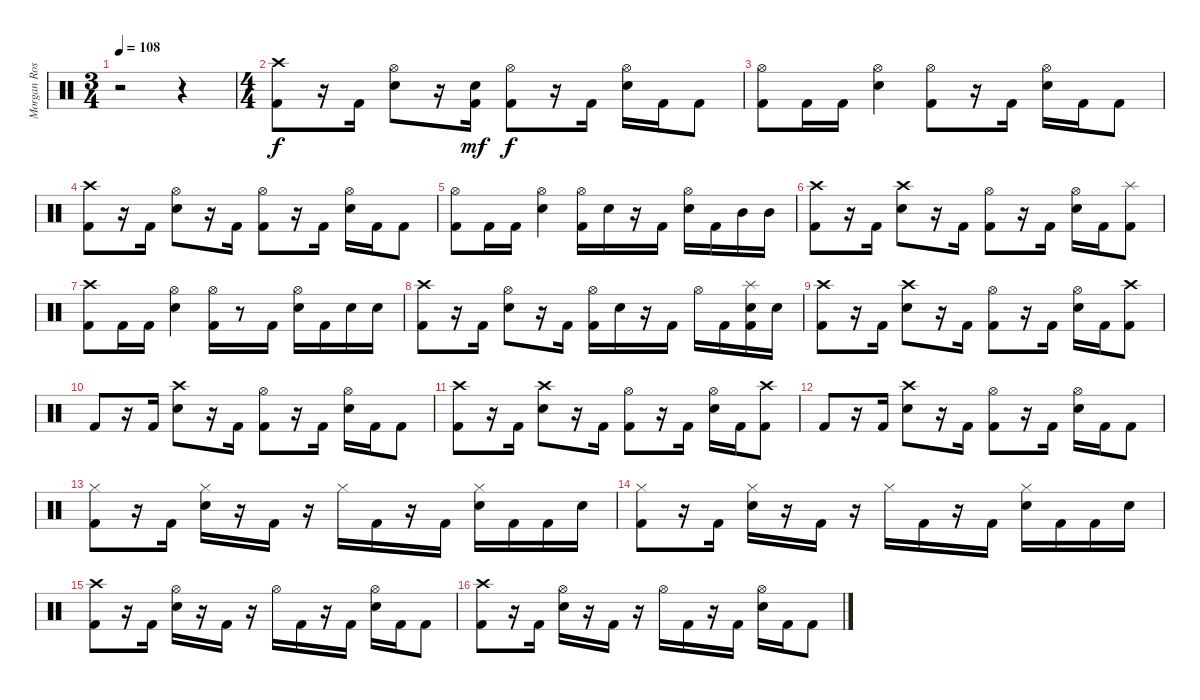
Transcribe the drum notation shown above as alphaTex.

\track ("Morgan Rose - Drums" "Morgan Ros") {instrument percussion}
\staff {score}
\articulation defaults
\ts (3 4)
\tempo 108
\clef neutral
\ks c
r.2{dy f} r.4 |
\ts (4 4)
("Crash high (hit)" "Kick (hit) 2").8 r.16 "Kick (hit) 2".16 ("Hi-Hat (open)" "Electric Snare (hit)").8 r.16 ("Electric Snare (hit)" "Kick (hit) 2").16{dy mf} ("Hi-Hat (open)" "Kick (hit) 2").8{dy f} r.16 "Kick (hit) 2".16 ("Hi-Hat (open)" "Electric Snare (hit)").16 "Kick (hit) 2".16 "Kick (hit) 2".8 |
("Hi-Hat (open)" "Kick (hit) 2").8 "Kick (hit) 2".16 "Kick (hit) 2".16 ("Hi-Hat (open)" "Electric Snare (hit)").4 ("Hi-Hat (open)" "Kick (hit) 2").8 r.16 "Kick (hit) 2".16 ("Hi-Hat (open)" "Electric Snare (hit)").16 "Kick (hit) 2".16 "Kick (hit) 2".8 |
("Crash high (hit)" "Kick (hit) 2").8 r.16 "Kick (hit) 2".16 ("Hi-Hat (open)" "Electric Snare (hit)").8 r.16 "Kick (hit) 2".16 ("Hi-Hat (open)" "Kick (hit) 2").8 r.16 "Kick (hit) 2".16 ("Hi-Hat (open)" "Electric Snare (hit)").16 "Kick (hit) 2".16 "Kick (hit) 2".8 |
("Hi-Hat (open)" "Kick (hit) 2").8 "Kick (hit) 2".16 "Kick (hit) 2".16 ("Hi-Hat (open)" "Electric Snare (hit)").4 ("Hi-Hat (open)" "Kick (hit) 2").16 "Electric Snare (hit)".16 r.16 "Kick (hit) 2".16 ("Hi-Hat (open)" "Electric Snare (hit)").16 "Kick (hit) 2".16 "Mid Tom (hit)".16 "Mid Tom (hit)".16 |
("Crash high (hit)" "Kick (hit) 2").8 r.16 "Kick (hit) 2".16 ("Crash high (hit)" "Electric Snare (hit)").8 r.16 "Kick (hit) 2".16 ("Hi-Hat (open)" "Kick (hit) 2").8 r.16 "Kick (hit) 2".16 ("Hi-Hat (open)" "Electric Snare (hit)").16 "Kick (hit) 2".16 ("Splash (hit)" "Kick (hit) 2").8 |
("Crash high (hit)" "Kick (hit) 2").8 "Kick (hit) 2".16 "Kick (hit) 2".16 ("Hi-Hat (open)" "Electric Snare (hit)").4 ("Hi-Hat (open)" "Kick (hit) 2").16 r.8 "Kick (hit) 2".16 ("Hi-Hat (open)" "Electric Snare (hit)").16 "Kick (hit) 2".16 "Electric Snare (hit)".16 "Electric Snare (hit)".16 |
("Crash high (hit)" "Kick (hit) 2").8 r.16 "Kick (hit) 2".16 ("Hi-Hat (open)" "Electric Snare (hit)").8 r.16 "Kick (hit) 2".16 ("Hi-Hat (open)" "Kick (hit) 2").16 "Electric Snare (hit)".16 r.16 "Kick (hit) 2".16 "Hi-Hat (open)".16 "Kick (hit) 2".16 ("Splash (hit)" "Electric Snare (hit)" "Kick (hit) 2").16 "Electric Snare (hit)".16 |
("Crash high (hit)" "Kick (hit) 2").8 r.16 "Kick (hit) 2".16 ("Crash high (hit)" "Electric Snare (hit)").8 r.16 "Kick (hit) 2".16 ("Hi-Hat (open)" "Kick (hit) 2").8 r.16 "Kick (hit) 2".16 ("Hi-Hat (open)" "Electric Snare (hit)").16 "Kick (hit) 2".16 ("Crash high (hit)" "Kick (hit) 2").8 |
"Kick (hit) 2".8 r.16 "Kick (hit) 2".16 ("Crash high (hit)" "Electric Snare (hit)").8 r.16 "Kick (hit) 2".16 ("Hi-Hat (open)" "Kick (hit) 2").8 r.16 "Kick (hit) 2".16 ("Hi-Hat (open)" "Electric Snare (hit)").16 "Kick (hit) 2".16 "Kick (hit) 2".8 |
("Crash high (hit)" "Kick (hit) 2").8 r.16 "Kick (hit) 2".16 ("Crash high (hit)" "Electric Snare (hit)").8 r.16 "Kick (hit) 2".16 ("Hi-Hat (open)" "Kick (hit) 2").8 r.16 "Kick (hit) 2".16 ("Hi-Hat (open)" "Electric Snare (hit)").16 "Kick (hit) 2".16 ("Crash high (hit)" "Kick (hit) 2").8 |
"Kick (hit) 2".8 r.16 "Kick (hit) 2".16 ("Crash high (hit)" "Electric Snare (hit)").8 r.16 "Kick (hit) 2".16 ("Hi-Hat (open)" "Kick (hit) 2").8 r.16 "Kick (hit) 2".16 ("Hi-Hat (open)" "Electric Snare (hit)").16 "Kick (hit) 2".16 "Kick (hit) 2".8 |
("Hi-Hat (closed)" "Kick (hit) 2").8 r.16 "Kick (hit) 2".16 ("Hi-Hat (closed)" "Electric Snare (hit)").16 r.16 "Kick (hit) 2".16 r.16 "Hi-Hat (closed)".16 "Kick (hit) 2".16 r.16 "Kick (hit) 2".16 ("Hi-Hat (closed)" "Electric Snare (hit)").16 "Kick (hit) 2".16 "Kick (hit) 2".16 "Electric Snare (hit)".16 |
("Hi-Hat (closed)" "Kick (hit) 2").8 r.16 "Kick (hit) 2".16 ("Hi-Hat (closed)" "Electric Snare (hit)").16 r.16 "Kick (hit) 2".16 r.16 "Hi-Hat (closed)".16 "Kick (hit) 2".16 r.16 "Kick (hit) 2".16 ("Hi-Hat (closed)" "Electric Snare (hit)").16 "Kick (hit) 2".16 "Kick (hit) 2".16 "Electric Snare (hit)".16 |
("Crash high (hit)" "Kick (hit) 2").8 r.16 "Kick (hit) 2".16 ("Hi-Hat (open)" "Electric Snare (hit)").16 r.16 "Kick (hit) 2".16 r.16 "Hi-Hat (open)".16 "Kick (hit) 2".16 r.16 "Kick (hit) 2".16 ("Hi-Hat (open)" "Electric Snare (hit)").16 "Kick (hit) 2".16 "Kick (hit) 2".8 |
("Crash high (hit)" "Kick (hit) 2").8 r.16 "Kick (hit) 2".16 ("Hi-Hat (open)" "Electric Snare (hit)").16 r.16 "Kick (hit) 2".16 r.16 "Hi-Hat (open)".16 "Kick (hit) 2".16 r.16 "Kick (hit) 2".16 ("Hi-Hat (open)" "Electric Snare (hit)").16 "Kick (hit) 2".16 "Kick (hit) 2".8
